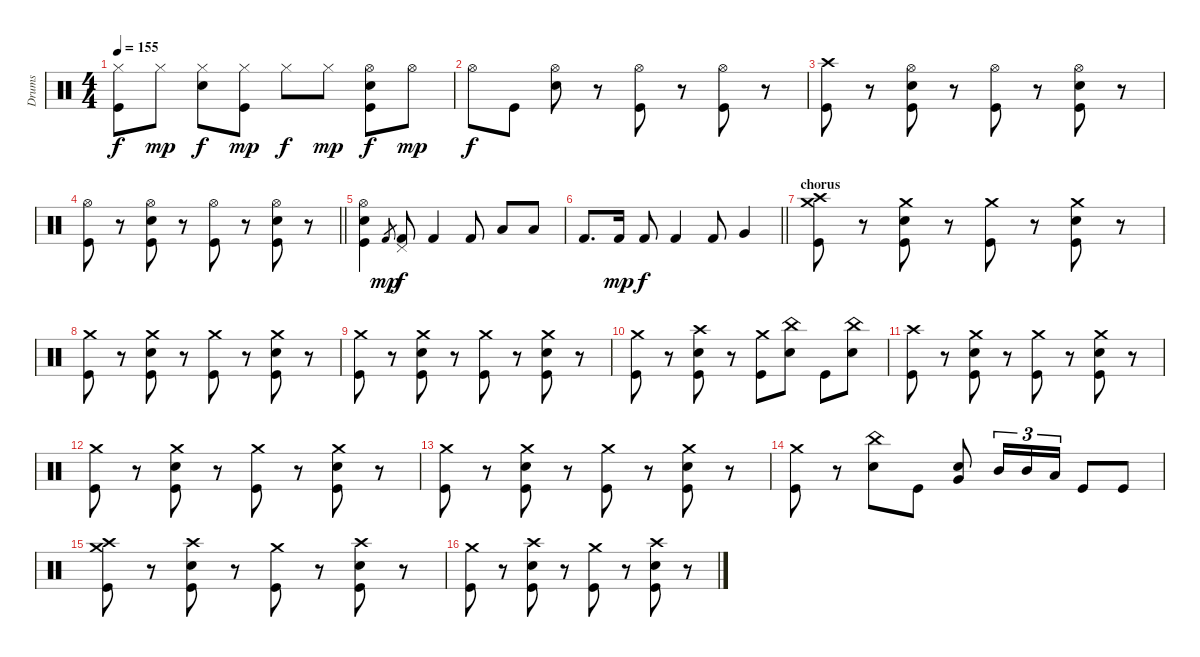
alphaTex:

\track ("Drums" "Drums") {instrument percussion}
\staff {score}
\articulation defaults
\ts (4 4)
\tempo 155
\clef neutral
\ks c
("Hi-Hat (closed)" "Kick (hit)").8{dy f} "Hi-Hat (closed)".8{dy mp} ("Hi-Hat (closed)" "Electric Snare (hit)").8{dy f} ("Hi-Hat (closed)" "Kick (hit)").8{dy mp} "Hi-Hat (closed)".8{dy f} "Hi-Hat (closed)".8{dy mp} ("Hi-Hat (open)" "Electric Snare (hit)" "Kick (hit)").8{dy f} "Hi-Hat (open)".8{dy mp} |
"Hi-Hat (open)".8{dy f} "Kick (hit)".8 ("Hi-Hat (open)" "Electric Snare (hit)").8 r.8 ("Hi-Hat (open)" "Kick (hit)").8 r.8 ("Hi-Hat (open)" "Kick (hit)").8 r.8 |
("Crash high (hit)" "Kick (hit)").8 r.8 ("Hi-Hat (open)" "Electric Snare (hit)" "Kick (hit)").8 r.8 ("Hi-Hat (open)" "Kick (hit)").8 r.8 ("Hi-Hat (open)" "Electric Snare (hit)" "Kick (hit)").8 r.8 |
\barLineRight lightlight
("Hi-Hat (open)" "Kick (hit)").8 r.8 ("Hi-Hat (open)" "Electric Snare (hit)" "Kick (hit)").8 r.8 ("Hi-Hat (open)" "Kick (hit)").8 r.8 ("Hi-Hat (open)" "Electric Snare (hit)" "Kick (hit)").8 r.8 |
("Hi-Hat (open)" "Electric Snare (hit)" "Kick (hit)").4 "Kick (hit) 2".8{gr dy mp} ("Pedal Hi-Hat (hit)" "Kick (hit) 2").8{dy f volume 16} "Kick (hit) 2".4 "Kick (hit) 2".8 "Low Tom (hit)".8 "Low Floor Tom (hit)".8 |
\barLineRight lightlight "Kick (hit) 2".8{d} "Kick (hit) 2".16{dy mp} "Kick (hit) 2".8{dy f} "Kick (hit) 2".4 "Kick (hit) 2".8 "Very Low Tom (hit)".4
|
\section ("" "chorus")
("Crash high (hit)" "Crash medium (hit)" "Kick (hit)").8{volume 16} r.8 ("Crash medium (hit)" "Electric Snare (hit)" "Kick (hit)").8 r.8 ("Crash medium (hit)" "Kick (hit)").8 r.8 ("Crash medium (hit)" "Electric Snare (hit)" "Kick (hit)").8 r.8 |
("Crash medium (hit)" "Kick (hit)").8 r.8 ("Crash medium (hit)" "Electric Snare (hit)" "Kick (hit)").8 r.8 ("Crash medium (hit)" "Kick (hit)").8 r.8 ("Crash medium (hit)" "Electric Snare (hit)" "Kick (hit)").8 r.8 |
("Crash medium (hit)" "Kick (hit)").8 r.8 ("Crash medium (hit)" "Electric Snare (hit)" "Kick (hit)").8 r.8 ("Crash medium (hit)" "Kick (hit)").8 r.8 ("Crash medium (hit)" "Electric Snare (hit)" "Kick (hit)").8 r.8 |
("Crash medium (hit)" "Kick (hit)").8 r.8 ("Crash high (hit)" "Electric Snare (hit)" "Kick (hit)").8 r.8 ("Crash medium (hit)" "Kick (hit)").8 ("China (hit)" "Electric Snare (hit)").8 "Kick (hit)".8 ("China (hit)" "Electric Snare (hit)").8 |
("Crash high (hit)" "Kick (hit)").8 r.8 ("Crash medium (hit)" "Electric Snare (hit)" "Kick (hit)").8 r.8 ("Crash medium (hit)" "Kick (hit)").8 r.8 ("Crash medium (hit)" "Electric Snare (hit)" "Kick (hit)").8 r.8 |
("Crash medium (hit)" "Kick (hit)").8 r.8 ("Crash medium (hit)" "Electric Snare (hit)" "Kick (hit)").8 r.8 ("Crash medium (hit)" "Kick (hit)").8 r.8 ("Crash medium (hit)" "Electric Snare (hit)" "Kick (hit)").8 r.8 |
("Crash medium (hit)" "Kick (hit)").8 r.8 ("Crash medium (hit)" "Electric Snare (hit)" "Kick (hit)").8 r.8 ("Crash medium (hit)" "Kick (hit)").8 r.8 ("Crash medium (hit)" "Electric Snare (hit)" "Kick (hit)").8 r.8 |
("Crash medium (hit)" "Kick (hit)").8 r.8 ("China (hit)" "Electric Snare (hit)").8 "Kick (hit)".8 ("Very Low Tom (hit)" "Electric Snare (hit)").8 "Mid Tom (hit)".16{tu (3 2)} "Mid Tom (hit)".16{tu (3 2)} "Low Tom (hit)".16{tu (3 2)} "Kick (hit)".8 "Kick (hit)".8 |
("Crash high (hit)" "Crash medium (hit)" "Kick (hit)").8 r.8 ("Crash high (hit)" "Electric Snare (hit)" "Kick (hit)").8 r.8 ("Crash medium (hit)" "Kick (hit)").8 r.8 ("Crash high (hit)" "Electric Snare (hit)" "Kick (hit)").8 r.8 |
("Crash medium (hit)" "Kick (hit)").8 r.8 ("Crash high (hit)" "Electric Snare (hit)" "Kick (hit)").8 r.8 ("Crash medium (hit)" "Kick (hit)").8 r.8 ("Crash high (hit)" "Electric Snare (hit)" "Kick (hit)").8 r.8
